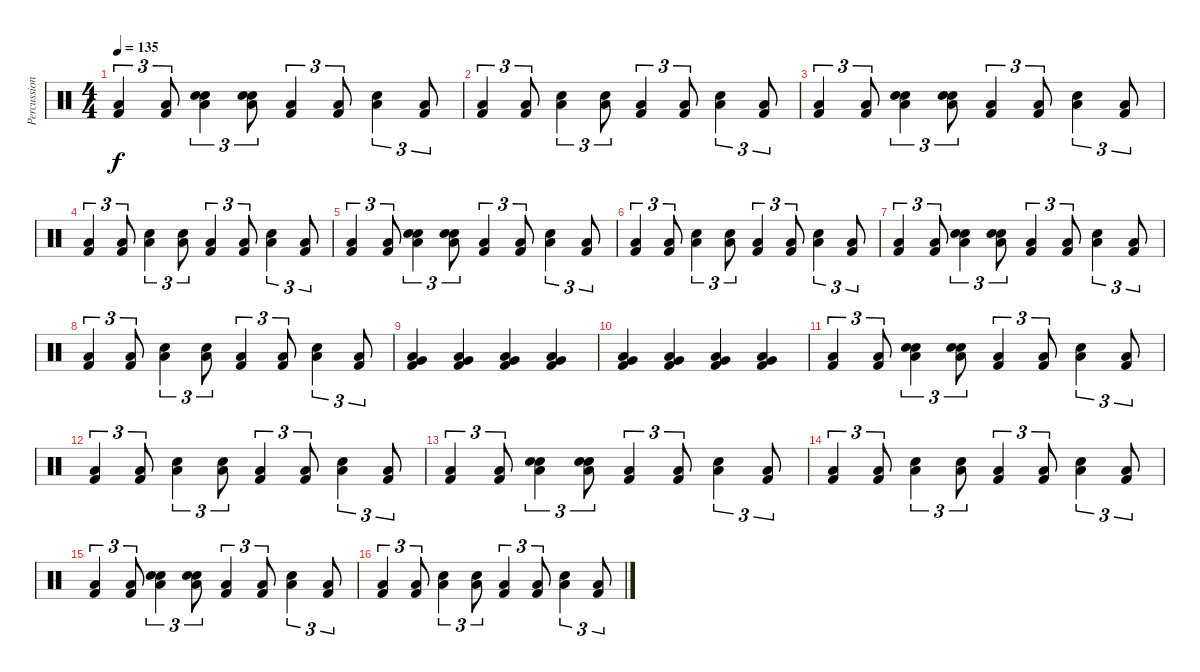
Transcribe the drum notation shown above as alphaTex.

\track ("Percussion" "Percussion") {instrument percussion}
\staff {score}
\articulation defaults
\ts (4 4)
\tempo 135
\clef neutral
\ks c
("Low Floor Tom (hit)" "Kick (hit) 2").4{tu (3 2) dy f} ("Low Floor Tom (hit)" "Kick (hit) 2").8{tu (3 2)} ("Hand Clap (hit)" "Low Floor Tom (hit)" "Electric Snare (hit)").4{tu (3 2)} ("Hand Clap (hit)" "Low Floor Tom (hit)" "Electric Snare (hit)").8{tu (3 2)} ("Low Floor Tom (hit)" "Kick (hit) 2").4{tu (3 2)} ("Low Floor Tom (hit)" "Kick (hit) 2").8{tu (3 2)} ("Low Floor Tom (hit)" "Electric Snare (hit)").4{tu (3 2)} ("Low Floor Tom (hit)" "Kick (hit) 2").8{tu (3 2)} |
("Low Floor Tom (hit)" "Kick (hit) 2").4{tu (3 2)} ("Low Floor Tom (hit)" "Kick (hit) 2").8{tu (3 2)} ("Low Floor Tom (hit)" "Electric Snare (hit)").4{tu (3 2)} ("Low Floor Tom (hit)" "Electric Snare (hit)").8{tu (3 2)} ("Low Floor Tom (hit)" "Kick (hit) 2").4{tu (3 2)} ("Low Floor Tom (hit)" "Kick (hit) 2").8{tu (3 2)} ("Low Floor Tom (hit)" "Electric Snare (hit)").4{tu (3 2)} ("Low Floor Tom (hit)" "Kick (hit) 2").8{tu (3 2)} |
("Low Floor Tom (hit)" "Kick (hit) 2").4{tu (3 2)} ("Low Floor Tom (hit)" "Kick (hit) 2").8{tu (3 2)} ("Hand Clap (hit)" "Low Floor Tom (hit)" "Electric Snare (hit)").4{tu (3 2)} ("Hand Clap (hit)" "Low Floor Tom (hit)" "Electric Snare (hit)").8{tu (3 2)} ("Low Floor Tom (hit)" "Kick (hit) 2").4{tu (3 2)} ("Low Floor Tom (hit)" "Kick (hit) 2").8{tu (3 2)} ("Low Floor Tom (hit)" "Electric Snare (hit)").4{tu (3 2)} ("Low Floor Tom (hit)" "Kick (hit) 2").8{tu (3 2)} |
("Low Floor Tom (hit)" "Kick (hit) 2").4{tu (3 2)} ("Low Floor Tom (hit)" "Kick (hit) 2").8{tu (3 2)} ("Low Floor Tom (hit)" "Electric Snare (hit)").4{tu (3 2)} ("Low Floor Tom (hit)" "Electric Snare (hit)").8{tu (3 2)} ("Low Floor Tom (hit)" "Kick (hit) 2").4{tu (3 2)} ("Low Floor Tom (hit)" "Kick (hit) 2").8{tu (3 2)} ("Low Floor Tom (hit)" "Electric Snare (hit)").4{tu (3 2)} ("Low Floor Tom (hit)" "Kick (hit) 2").8{tu (3 2)} |
("Low Floor Tom (hit)" "Kick (hit) 2").4{tu (3 2)} ("Low Floor Tom (hit)" "Kick (hit) 2").8{tu (3 2)} ("Hand Clap (hit)" "Low Floor Tom (hit)" "Electric Snare (hit)").4{tu (3 2)} ("Hand Clap (hit)" "Low Floor Tom (hit)" "Electric Snare (hit)").8{tu (3 2)} ("Low Floor Tom (hit)" "Kick (hit) 2").4{tu (3 2)} ("Low Floor Tom (hit)" "Kick (hit) 2").8{tu (3 2)} ("Low Floor Tom (hit)" "Electric Snare (hit)").4{tu (3 2)} ("Low Floor Tom (hit)" "Kick (hit) 2").8{tu (3 2)} |
("Low Floor Tom (hit)" "Kick (hit) 2").4{tu (3 2)} ("Low Floor Tom (hit)" "Kick (hit) 2").8{tu (3 2)} ("Low Floor Tom (hit)" "Electric Snare (hit)").4{tu (3 2)} ("Low Floor Tom (hit)" "Electric Snare (hit)").8{tu (3 2)} ("Low Floor Tom (hit)" "Kick (hit) 2").4{tu (3 2)} ("Low Floor Tom (hit)" "Kick (hit) 2").8{tu (3 2)} ("Low Floor Tom (hit)" "Electric Snare (hit)").4{tu (3 2)} ("Low Floor Tom (hit)" "Kick (hit) 2").8{tu (3 2)} |
("Low Floor Tom (hit)" "Kick (hit) 2").4{tu (3 2)} ("Low Floor Tom (hit)" "Kick (hit) 2").8{tu (3 2)} ("Hand Clap (hit)" "Low Floor Tom (hit)" "Electric Snare (hit)").4{tu (3 2)} ("Hand Clap (hit)" "Low Floor Tom (hit)" "Electric Snare (hit)").8{tu (3 2)} ("Low Floor Tom (hit)" "Kick (hit) 2").4{tu (3 2)} ("Low Floor Tom (hit)" "Kick (hit) 2").8{tu (3 2)} ("Low Floor Tom (hit)" "Electric Snare (hit)").4{tu (3 2)} ("Low Floor Tom (hit)" "Kick (hit) 2").8{tu (3 2)} |
("Low Floor Tom (hit)" "Kick (hit) 2").4{tu (3 2)} ("Low Floor Tom (hit)" "Kick (hit) 2").8{tu (3 2)} ("Low Floor Tom (hit)" "Electric Snare (hit)").4{tu (3 2)} ("Low Floor Tom (hit)" "Electric Snare (hit)").8{tu (3 2)} ("Low Floor Tom (hit)" "Kick (hit) 2").4{tu (3 2)} ("Low Floor Tom (hit)" "Kick (hit) 2").8{tu (3 2)} ("Low Floor Tom (hit)" "Electric Snare (hit)").4{tu (3 2)} ("Low Floor Tom (hit)" "Kick (hit) 2").8{tu (3 2)} |
("Very Low Tom (hit)" "Low Floor Tom (hit)" "Kick (hit) 2").4 ("Very Low Tom (hit)" "Low Floor Tom (hit)" "Kick (hit) 2").4 ("Very Low Tom (hit)" "Low Floor Tom (hit)" "Kick (hit) 2").4 ("Very Low Tom (hit)" "Low Floor Tom (hit)" "Kick (hit) 2").4 |
("Very Low Tom (hit)" "Low Floor Tom (hit)" "Kick (hit) 2").4 ("Very Low Tom (hit)" "Low Floor Tom (hit)" "Kick (hit) 2").4 ("Very Low Tom (hit)" "Low Floor Tom (hit)" "Kick (hit) 2").4 ("Very Low Tom (hit)" "Low Floor Tom (hit)" "Kick (hit) 2").4 |
("Low Floor Tom (hit)" "Kick (hit) 2").4{tu (3 2)} ("Low Floor Tom (hit)" "Kick (hit) 2").8{tu (3 2)} ("Hand Clap (hit)" "Low Floor Tom (hit)" "Electric Snare (hit)").4{tu (3 2)} ("Hand Clap (hit)" "Low Floor Tom (hit)" "Electric Snare (hit)").8{tu (3 2)} ("Low Floor Tom (hit)" "Kick (hit) 2").4{tu (3 2)} ("Low Floor Tom (hit)" "Kick (hit) 2").8{tu (3 2)} ("Low Floor Tom (hit)" "Electric Snare (hit)").4{tu (3 2)} ("Low Floor Tom (hit)" "Kick (hit) 2").8{tu (3 2)} |
("Low Floor Tom (hit)" "Kick (hit) 2").4{tu (3 2)} ("Low Floor Tom (hit)" "Kick (hit) 2").8{tu (3 2)} ("Low Floor Tom (hit)" "Electric Snare (hit)").4{tu (3 2)} ("Low Floor Tom (hit)" "Electric Snare (hit)").8{tu (3 2)} ("Low Floor Tom (hit)" "Kick (hit) 2").4{tu (3 2)} ("Low Floor Tom (hit)" "Kick (hit) 2").8{tu (3 2)} ("Low Floor Tom (hit)" "Electric Snare (hit)").4{tu (3 2)} ("Low Floor Tom (hit)" "Kick (hit) 2").8{tu (3 2)} |
("Low Floor Tom (hit)" "Kick (hit) 2").4{tu (3 2)} ("Low Floor Tom (hit)" "Kick (hit) 2").8{tu (3 2)} ("Hand Clap (hit)" "Low Floor Tom (hit)" "Electric Snare (hit)").4{tu (3 2)} ("Hand Clap (hit)" "Low Floor Tom (hit)" "Electric Snare (hit)").8{tu (3 2)} ("Low Floor Tom (hit)" "Kick (hit) 2").4{tu (3 2)} ("Low Floor Tom (hit)" "Kick (hit) 2").8{tu (3 2)} ("Low Floor Tom (hit)" "Electric Snare (hit)").4{tu (3 2)} ("Low Floor Tom (hit)" "Kick (hit) 2").8{tu (3 2)} |
("Low Floor Tom (hit)" "Kick (hit) 2").4{tu (3 2)} ("Low Floor Tom (hit)" "Kick (hit) 2").8{tu (3 2)} ("Low Floor Tom (hit)" "Electric Snare (hit)").4{tu (3 2)} ("Low Floor Tom (hit)" "Electric Snare (hit)").8{tu (3 2)} ("Low Floor Tom (hit)" "Kick (hit) 2").4{tu (3 2)} ("Low Floor Tom (hit)" "Kick (hit) 2").8{tu (3 2)} ("Low Floor Tom (hit)" "Electric Snare (hit)").4{tu (3 2)} ("Low Floor Tom (hit)" "Kick (hit) 2").8{tu (3 2)} |
("Low Floor Tom (hit)" "Kick (hit) 2").4{tu (3 2)} ("Low Floor Tom (hit)" "Kick (hit) 2").8{tu (3 2)} ("Hand Clap (hit)" "Low Floor Tom (hit)" "Electric Snare (hit)").4{tu (3 2)} ("Hand Clap (hit)" "Low Floor Tom (hit)" "Electric Snare (hit)").8{tu (3 2)} ("Low Floor Tom (hit)" "Kick (hit) 2").4{tu (3 2)} ("Low Floor Tom (hit)" "Kick (hit) 2").8{tu (3 2)} ("Low Floor Tom (hit)" "Electric Snare (hit)").4{tu (3 2)} ("Low Floor Tom (hit)" "Kick (hit) 2").8{tu (3 2)} |
("Low Floor Tom (hit)" "Kick (hit) 2").4{tu (3 2)} ("Low Floor Tom (hit)" "Kick (hit) 2").8{tu (3 2)} ("Low Floor Tom (hit)" "Electric Snare (hit)").4{tu (3 2)} ("Low Floor Tom (hit)" "Electric Snare (hit)").8{tu (3 2)} ("Low Floor Tom (hit)" "Kick (hit) 2").4{tu (3 2)} ("Low Floor Tom (hit)" "Kick (hit) 2").8{tu (3 2)} ("Low Floor Tom (hit)" "Electric Snare (hit)").4{tu (3 2)} ("Low Floor Tom (hit)" "Kick (hit) 2").8{tu (3 2)}
